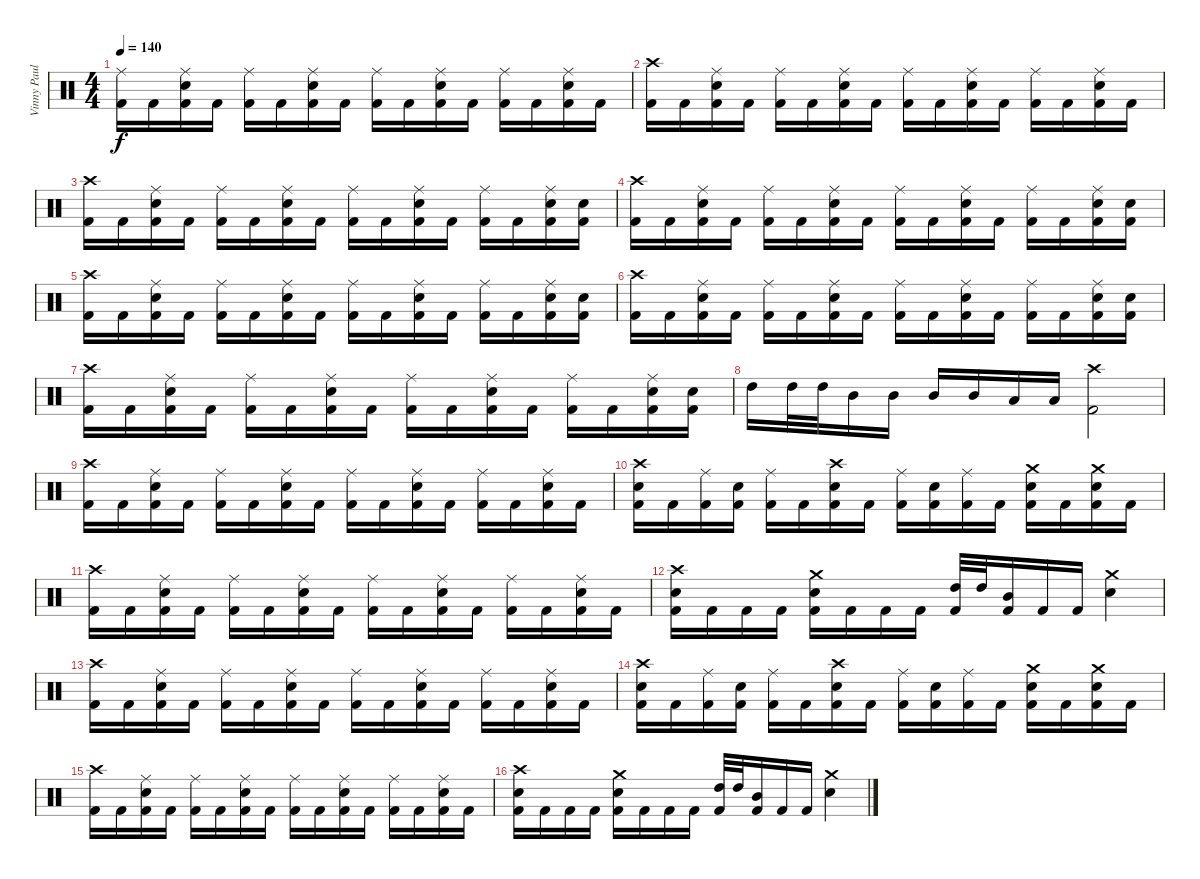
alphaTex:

\track ("Vinny Paul" "Vinny Paul") {instrument percussion}
\staff {score}
\articulation defaults
\ts (4 4)
\tempo 140
\clef neutral
\ks c
("Ride (middle)" "Kick (hit) 2").16{dy f} "Kick (hit) 2".16 ("Ride (middle)" "Snare (hit) 2" "Kick (hit) 2").16 "Kick (hit) 2".16 ("Ride (middle)" "Kick (hit) 2").16 "Kick (hit) 2".16 ("Ride (middle)" "Snare (hit) 2" "Kick (hit) 2").16 "Kick (hit) 2".16 ("Ride (middle)" "Kick (hit) 2").16 "Kick (hit) 2".16 ("Ride (middle)" "Snare (hit) 2" "Kick (hit) 2").16 "Kick (hit) 2".16 ("Ride (middle)" "Kick (hit) 2").16 "Kick (hit) 2".16 ("Ride (middle)" "Snare (hit) 2" "Kick (hit) 2").16 "Kick (hit) 2".16 |
("Crash high (hit)" "Kick (hit) 2").16 "Kick (hit) 2".16 ("Ride (middle)" "Snare (hit) 2" "Kick (hit) 2").16 "Kick (hit) 2".16 ("Ride (middle)" "Kick (hit) 2").16 "Kick (hit) 2".16 ("Ride (middle)" "Snare (hit) 2" "Kick (hit) 2").16 "Kick (hit) 2".16 ("Ride (middle)" "Kick (hit) 2").16 "Kick (hit) 2".16 ("Ride (middle)" "Snare (hit) 2" "Kick (hit) 2").16 "Kick (hit) 2".16 ("Ride (middle)" "Kick (hit) 2").16 "Kick (hit) 2".16 ("Ride (middle)" "Snare (hit) 2" "Kick (hit) 2").16 "Kick (hit) 2".16 |
("Crash high (hit)" "Kick (hit) 2").16 "Kick (hit) 2".16 ("Ride (middle)" "Snare (hit) 2" "Kick (hit) 2").16 "Kick (hit) 2".16 ("Ride (middle)" "Kick (hit) 2").16 "Kick (hit) 2".16 ("Ride (middle)" "Snare (hit) 2" "Kick (hit) 2").16 "Kick (hit) 2".16 ("Ride (middle)" "Kick (hit) 2").16 "Kick (hit) 2".16 ("Ride (middle)" "Snare (hit) 2" "Kick (hit) 2").16 "Kick (hit) 2".16 ("Ride (middle)" "Kick (hit) 2").16 "Kick (hit) 2".16 ("Ride (middle)" "Snare (hit) 2" "Kick (hit) 2").16 ("Snare (hit) 2" "Kick (hit) 2").16 |
("Crash high (hit)" "Kick (hit) 2").16 "Kick (hit) 2".16 ("Ride (middle)" "Snare (hit) 2" "Kick (hit) 2").16 "Kick (hit) 2".16 ("Ride (middle)" "Kick (hit) 2").16 "Kick (hit) 2".16 ("Ride (middle)" "Snare (hit) 2" "Kick (hit) 2").16 "Kick (hit) 2".16 ("Ride (middle)" "Kick (hit) 2").16 "Kick (hit) 2".16 ("Ride (middle)" "Snare (hit) 2" "Kick (hit) 2").16 "Kick (hit) 2".16 ("Ride (middle)" "Kick (hit) 2").16 "Kick (hit) 2".16 ("Ride (middle)" "Snare (hit) 2" "Kick (hit) 2").16 ("Snare (hit) 2" "Kick (hit) 2").16 |
("Crash high (hit)" "Kick (hit) 2").16 "Kick (hit) 2".16 ("Ride (middle)" "Snare (hit) 2" "Kick (hit) 2").16 "Kick (hit) 2".16 ("Ride (middle)" "Kick (hit) 2").16 "Kick (hit) 2".16 ("Ride (middle)" "Snare (hit) 2" "Kick (hit) 2").16 "Kick (hit) 2".16 ("Ride (middle)" "Kick (hit) 2").16 "Kick (hit) 2".16 ("Ride (middle)" "Snare (hit) 2" "Kick (hit) 2").16 "Kick (hit) 2".16 ("Ride (middle)" "Kick (hit) 2").16 "Kick (hit) 2".16 ("Ride (middle)" "Snare (hit) 2" "Kick (hit) 2").16 ("Snare (hit) 2" "Kick (hit) 2").16 |
("Crash high (hit)" "Kick (hit) 2").16 "Kick (hit) 2".16 ("Ride (middle)" "Snare (hit) 2" "Kick (hit) 2").16 "Kick (hit) 2".16 ("Ride (middle)" "Kick (hit) 2").16 "Kick (hit) 2".16 ("Ride (middle)" "Snare (hit) 2" "Kick (hit) 2").16 "Kick (hit) 2".16 ("Ride (middle)" "Kick (hit) 2").16 "Kick (hit) 2".16 ("Ride (middle)" "Snare (hit) 2" "Kick (hit) 2").16 "Kick (hit) 2".16 ("Ride (middle)" "Kick (hit) 2").16 "Kick (hit) 2".16 ("Ride (middle)" "Snare (hit) 2" "Kick (hit) 2").16 ("Snare (hit) 2" "Kick (hit) 2").16 |
("Crash high (hit)" "Kick (hit) 2").16 "Kick (hit) 2".16 ("Ride (middle)" "Snare (hit) 2" "Kick (hit) 2").16 "Kick (hit) 2".16 ("Ride (middle)" "Kick (hit) 2").16 "Kick (hit) 2".16 ("Ride (middle)" "Snare (hit) 2" "Kick (hit) 2").16 "Kick (hit) 2".16 ("Ride (middle)" "Kick (hit) 2").16 "Kick (hit) 2".16 ("Ride (middle)" "Snare (hit) 2" "Kick (hit) 2").16 "Kick (hit) 2".16 ("Ride (middle)" "Kick (hit) 2").16 "Kick (hit) 2".16 ("Ride (middle)" "Snare (hit) 2" "Kick (hit) 2").16 ("Snare (hit) 2" "Kick (hit) 2").16 |
"High Tom (hit)".16 "High Tom (hit)".32 "High Tom (hit)".32 "Mid Tom (hit)".16 "Mid Tom (hit)".16 "Mid Tom (hit)".16 "Mid Tom (hit)".16 "Low Tom (hit)".16 "Low Tom (hit)".16 ("Crash high (hit)" "Kick (hit) 2").2 |
("Crash high (hit)" "Kick (hit) 2").16 "Kick (hit) 2".16 ("Ride (middle)" "Snare (hit) 2" "Kick (hit) 2").16 "Kick (hit) 2".16 ("Ride (middle)" "Kick (hit) 2").16 "Kick (hit) 2".16 ("Ride (middle)" "Snare (hit) 2" "Kick (hit) 2").16 "Kick (hit) 2".16 ("Ride (middle)" "Kick (hit) 2").16 "Kick (hit) 2".16 ("Ride (middle)" "Snare (hit) 2" "Kick (hit) 2").16 "Kick (hit) 2".16 ("Ride (middle)" "Kick (hit) 2").16 "Kick (hit) 2".16 ("Ride (middle)" "Snare (hit) 2" "Kick (hit) 2").16 "Kick (hit) 2".16 |
("Crash high (hit)" "Snare (hit) 2" "Kick (hit) 2").16 "Kick (hit) 2".16 ("Ride (middle)" "Kick (hit) 2").16 ("Snare (hit) 2" "Kick (hit) 2").16 ("Ride (middle)" "Kick (hit) 2").16 "Kick (hit) 2".16 ("Crash high (hit)" "Snare (hit) 2" "Kick (hit) 2").16 "Kick (hit) 2".16 ("Ride (middle)" "Kick (hit) 2").16 ("Snare (hit) 2" "Kick (hit) 2").16 ("Ride (middle)" "Kick (hit) 2").16 "Kick (hit) 2".16 ("Crash medium (hit)" "Snare (hit) 2" "Kick (hit) 2").16 "Kick (hit) 2".16 ("Crash medium (hit)" "Snare (hit) 2" "Kick (hit) 2").16 "Kick (hit) 2".16 |
("Crash high (hit)" "Kick (hit) 2").16 "Kick (hit) 2".16 ("Ride (middle)" "Snare (hit) 2" "Kick (hit) 2").16 "Kick (hit) 2".16 ("Ride (middle)" "Kick (hit) 2").16 "Kick (hit) 2".16 ("Ride (middle)" "Snare (hit) 2" "Kick (hit) 2").16 "Kick (hit) 2".16 ("Ride (middle)" "Kick (hit) 2").16 "Kick (hit) 2".16 ("Ride (middle)" "Snare (hit) 2" "Kick (hit) 2").16 "Kick (hit) 2".16 ("Ride (middle)" "Kick (hit) 2").16 "Kick (hit) 2".16 ("Ride (middle)" "Snare (hit) 2" "Kick (hit) 2").16 "Kick (hit) 2".16 |
("Crash high (hit)" "Snare (hit) 2" "Kick (hit) 2").16 "Kick (hit) 2".16 "Kick (hit) 2".16 "Kick (hit) 2".16 ("Crash medium (hit)" "Snare (hit) 2" "Kick (hit) 2").16 "Kick (hit) 2".16 "Kick (hit) 2".16 "Kick (hit) 2".16 ("High Tom (hit)" "Kick (hit) 2").32 "High Tom (hit)".32 ("Mid Tom (hit)" "Kick (hit) 2").16 "Kick (hit) 2".16 "Kick (hit) 2".16 ("Crash medium (hit)" "Snare (hit) 2").4 |
("Crash high (hit)" "Kick (hit) 2").16 "Kick (hit) 2".16 ("Ride (middle)" "Snare (hit) 2" "Kick (hit) 2").16 "Kick (hit) 2".16 ("Ride (middle)" "Kick (hit) 2").16 "Kick (hit) 2".16 ("Ride (middle)" "Snare (hit) 2" "Kick (hit) 2").16 "Kick (hit) 2".16 ("Ride (middle)" "Kick (hit) 2").16 "Kick (hit) 2".16 ("Ride (middle)" "Snare (hit) 2" "Kick (hit) 2").16 "Kick (hit) 2".16 ("Ride (middle)" "Kick (hit) 2").16 "Kick (hit) 2".16 ("Ride (middle)" "Snare (hit) 2" "Kick (hit) 2").16 "Kick (hit) 2".16 |
("Crash high (hit)" "Snare (hit) 2" "Kick (hit) 2").16 "Kick (hit) 2".16 ("Ride (middle)" "Kick (hit) 2").16 ("Snare (hit) 2" "Kick (hit) 2").16 ("Ride (middle)" "Kick (hit) 2").16 "Kick (hit) 2".16 ("Crash high (hit)" "Snare (hit) 2" "Kick (hit) 2").16 "Kick (hit) 2".16 ("Ride (middle)" "Kick (hit) 2").16 ("Snare (hit) 2" "Kick (hit) 2").16 ("Ride (middle)" "Kick (hit) 2").16 "Kick (hit) 2".16 ("Crash medium (hit)" "Snare (hit) 2" "Kick (hit) 2").16 "Kick (hit) 2".16 ("Crash medium (hit)" "Snare (hit) 2" "Kick (hit) 2").16 "Kick (hit) 2".16 |
("Crash high (hit)" "Kick (hit) 2").16 "Kick (hit) 2".16 ("Ride (middle)" "Snare (hit) 2" "Kick (hit) 2").16 "Kick (hit) 2".16 ("Ride (middle)" "Kick (hit) 2").16 "Kick (hit) 2".16 ("Ride (middle)" "Snare (hit) 2" "Kick (hit) 2").16 "Kick (hit) 2".16 ("Ride (middle)" "Kick (hit) 2").16 "Kick (hit) 2".16 ("Ride (middle)" "Snare (hit) 2" "Kick (hit) 2").16 "Kick (hit) 2".16 ("Ride (middle)" "Kick (hit) 2").16 "Kick (hit) 2".16 ("Ride (middle)" "Snare (hit) 2" "Kick (hit) 2").16 "Kick (hit) 2".16 |
("Crash high (hit)" "Snare (hit) 2" "Kick (hit) 2").16 "Kick (hit) 2".16 "Kick (hit) 2".16 "Kick (hit) 2".16 ("Crash medium (hit)" "Snare (hit) 2" "Kick (hit) 2").16 "Kick (hit) 2".16 "Kick (hit) 2".16 "Kick (hit) 2".16 ("High Tom (hit)" "Kick (hit) 2").32 "High Tom (hit)".32 ("Mid Tom (hit)" "Kick (hit) 2").16 "Kick (hit) 2".16 "Kick (hit) 2".16 ("Crash medium (hit)" "Snare (hit) 2").4
